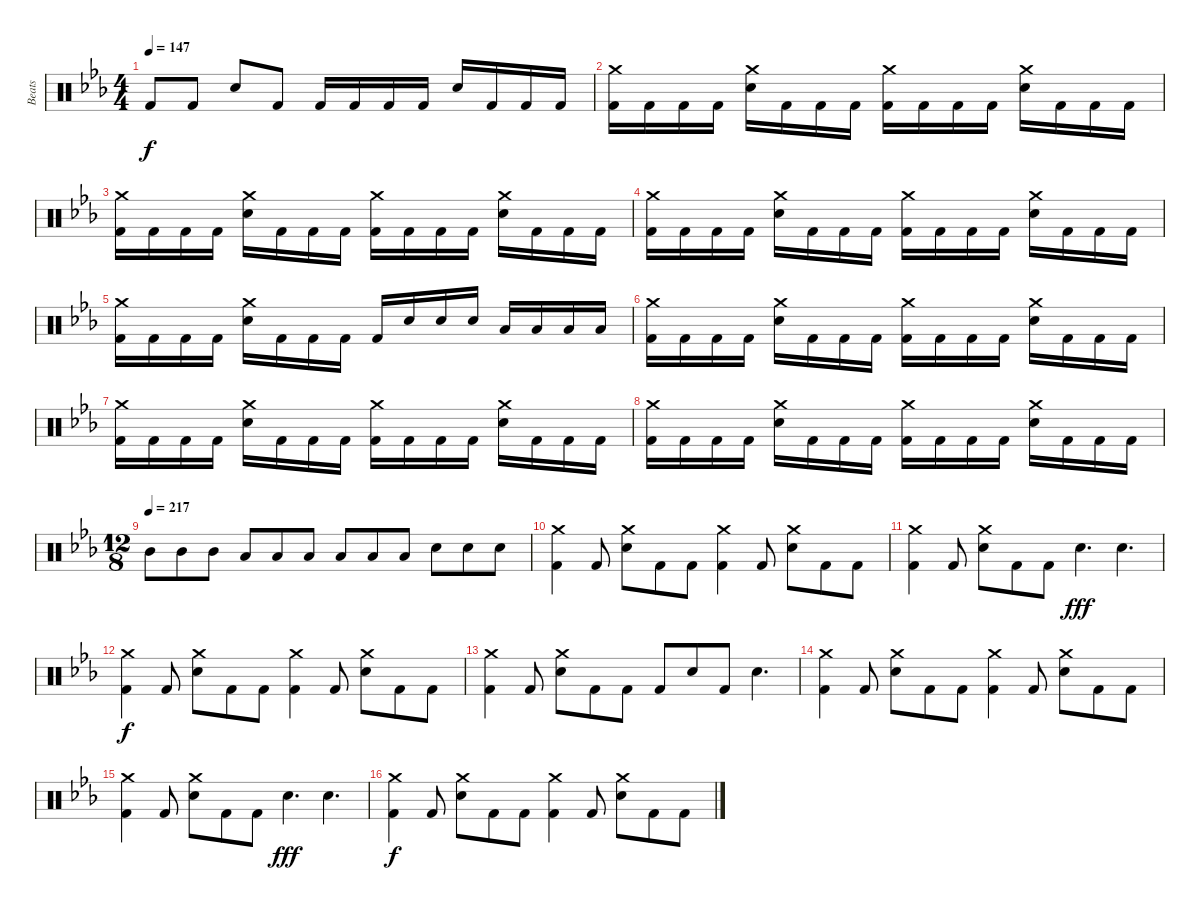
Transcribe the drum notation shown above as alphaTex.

\track ("Beats" "Beats") {instrument percussion}
\staff {score}
\articulation defaults
\ts (4 4)
\tempo 147
\clef neutral
\ks eb "Kick (hit) 2".8{dy f} "Kick (hit) 2".8 "Snare (hit) 2".8 "Kick (hit) 2".8 "Kick (hit) 2".16 "Kick (hit) 2".16 "Kick (hit) 2".16 "Kick (hit) 2".16 "Snare (hit) 2".16 "Kick (hit) 2".16 "Kick (hit) 2".16 "Kick (hit) 2".16
|
("Crash medium (hit)" "Kick (hit) 2").16 "Kick (hit) 2".16 "Kick (hit) 2".16 "Kick (hit) 2".16 ("Crash medium (hit)" "Snare (hit) 2").16 "Kick (hit) 2".16 "Kick (hit) 2".16 "Kick (hit) 2".16 ("Crash medium (hit)" "Kick (hit) 2").16 "Kick (hit) 2".16 "Kick (hit) 2".16 "Kick (hit) 2".16 ("Crash medium (hit)" "Snare (hit) 2").16 "Kick (hit) 2".16 "Kick (hit) 2".16 "Kick (hit) 2".16 |
("Crash medium (hit)" "Kick (hit) 2").16 "Kick (hit) 2".16 "Kick (hit) 2".16 "Kick (hit) 2".16 ("Crash medium (hit)" "Snare (hit) 2").16 "Kick (hit) 2".16 "Kick (hit) 2".16 "Kick (hit) 2".16 ("Crash medium (hit)" "Kick (hit) 2").16 "Kick (hit) 2".16 "Kick (hit) 2".16 "Kick (hit) 2".16 ("Crash medium (hit)" "Snare (hit) 2").16 "Kick (hit) 2".16 "Kick (hit) 2".16 "Kick (hit) 2".16 |
("Crash medium (hit)" "Kick (hit) 2").16 "Kick (hit) 2".16 "Kick (hit) 2".16 "Kick (hit) 2".16 ("Crash medium (hit)" "Snare (hit) 2").16 "Kick (hit) 2".16 "Kick (hit) 2".16 "Kick (hit) 2".16 ("Crash medium (hit)" "Kick (hit) 2").16 "Kick (hit) 2".16 "Kick (hit) 2".16 "Kick (hit) 2".16 ("Crash medium (hit)" "Snare (hit) 2").16 "Kick (hit) 2".16 "Kick (hit) 2".16 "Kick (hit) 2".16 |
("Crash medium (hit)" "Kick (hit) 2").16 "Kick (hit) 2".16 "Kick (hit) 2".16 "Kick (hit) 2".16 ("Crash medium (hit)" "Snare (hit) 2").16 "Kick (hit) 2".16 "Kick (hit) 2".16 "Kick (hit) 2".16 "Kick (hit) 2".16 "Snare (hit) 2".16 "Snare (hit) 2".16 "Snare (hit) 2".16 "Low Tom (hit)".16 "Low Tom (hit)".16 "Low Floor Tom (hit)".16 "Low Floor Tom (hit)".16 |
("Crash medium (hit)" "Kick (hit) 2").16 "Kick (hit) 2".16 "Kick (hit) 2".16 "Kick (hit) 2".16 ("Crash medium (hit)" "Snare (hit) 2").16 "Kick (hit) 2".16 "Kick (hit) 2".16 "Kick (hit) 2".16 ("Crash medium (hit)" "Kick (hit) 2").16 "Kick (hit) 2".16 "Kick (hit) 2".16 "Kick (hit) 2".16 ("Crash medium (hit)" "Snare (hit) 2").16 "Kick (hit) 2".16 "Kick (hit) 2".16 "Kick (hit) 2".16 |
("Crash medium (hit)" "Kick (hit) 2").16 "Kick (hit) 2".16 "Kick (hit) 2".16 "Kick (hit) 2".16 ("Crash medium (hit)" "Snare (hit) 2").16 "Kick (hit) 2".16 "Kick (hit) 2".16 "Kick (hit) 2".16 ("Crash medium (hit)" "Kick (hit) 2").16 "Kick (hit) 2".16 "Kick (hit) 2".16 "Kick (hit) 2".16 ("Crash medium (hit)" "Snare (hit) 2").16 "Kick (hit) 2".16 "Kick (hit) 2".16 "Kick (hit) 2".16 |
("Crash medium (hit)" "Kick (hit) 2").16 "Kick (hit) 2".16 "Kick (hit) 2".16 "Kick (hit) 2".16 ("Crash medium (hit)" "Snare (hit) 2").16 "Kick (hit) 2".16 "Kick (hit) 2".16 "Kick (hit) 2".16 ("Crash medium (hit)" "Kick (hit) 2").16 "Kick (hit) 2".16 "Kick (hit) 2".16 "Kick (hit) 2".16 ("Crash medium (hit)" "Snare (hit) 2").16 "Kick (hit) 2".16 "Kick (hit) 2".16 "Kick (hit) 2".16 |
\ts (12 8)
\tempo (217)
"Mid Tom (hit)".8 "Mid Tom (hit)".8 "Mid Tom (hit)".8 "Low Tom (hit)".8 "Low Tom (hit)".8 "Low Tom (hit)".8 "Low Floor Tom (hit)".8 "Low Floor Tom (hit)".8 "Low Floor Tom (hit)".8 "Snare (hit) 2".8 "Snare (hit) 2".8 "Snare (hit) 2".8 |
("Crash medium (hit)" "Kick (hit) 2").4 "Kick (hit) 2".8 ("Crash medium (hit)" "Snare (hit) 2").8 "Kick (hit) 2".8 "Kick (hit) 2".8 ("Crash medium (hit)" "Kick (hit) 2").4 "Kick (hit) 2".8 ("Crash medium (hit)" "Snare (hit) 2").8 "Kick (hit) 2".8 "Kick (hit) 2".8 |
("Crash medium (hit)" "Kick (hit) 2").4 "Kick (hit) 2".8 ("Crash medium (hit)" "Snare (hit) 2").8 "Kick (hit) 2".8 "Kick (hit) 2".8 "Snare (hit) 2".4{d dy fff} "Snare (hit) 2".4{d} |
("Crash medium (hit)" "Kick (hit) 2").4{dy f} "Kick (hit) 2".8 ("Crash medium (hit)" "Snare (hit) 2").8 "Kick (hit) 2".8 "Kick (hit) 2".8 ("Crash medium (hit)" "Kick (hit) 2").4 "Kick (hit) 2".8 ("Crash medium (hit)" "Snare (hit) 2").8 "Kick (hit) 2".8 "Kick (hit) 2".8 |
("Crash medium (hit)" "Kick (hit) 2").4 "Kick (hit) 2".8 ("Crash medium (hit)" "Snare (hit) 2").8 "Kick (hit) 2".8 "Kick (hit) 2".8 "Kick (hit) 2".8 "Snare (hit) 2".8 "Kick (hit) 2".8 "Snare (hit) 2".4{d} |
("Crash medium (hit)" "Kick (hit) 2").4 "Kick (hit) 2".8 ("Crash medium (hit)" "Snare (hit) 2").8 "Kick (hit) 2".8 "Kick (hit) 2".8 ("Crash medium (hit)" "Kick (hit) 2").4 "Kick (hit) 2".8 ("Crash medium (hit)" "Snare (hit) 2").8 "Kick (hit) 2".8 "Kick (hit) 2".8 |
("Crash medium (hit)" "Kick (hit) 2").4 "Kick (hit) 2".8 ("Crash medium (hit)" "Snare (hit) 2").8 "Kick (hit) 2".8 "Kick (hit) 2".8 "Snare (hit) 2".4{d dy fff} "Snare (hit) 2".4{d} |
("Crash medium (hit)" "Kick (hit) 2").4{dy f} "Kick (hit) 2".8 ("Crash medium (hit)" "Snare (hit) 2").8 "Kick (hit) 2".8 "Kick (hit) 2".8 ("Crash medium (hit)" "Kick (hit) 2").4 "Kick (hit) 2".8 ("Crash medium (hit)" "Snare (hit) 2").8 "Kick (hit) 2".8 "Kick (hit) 2".8
